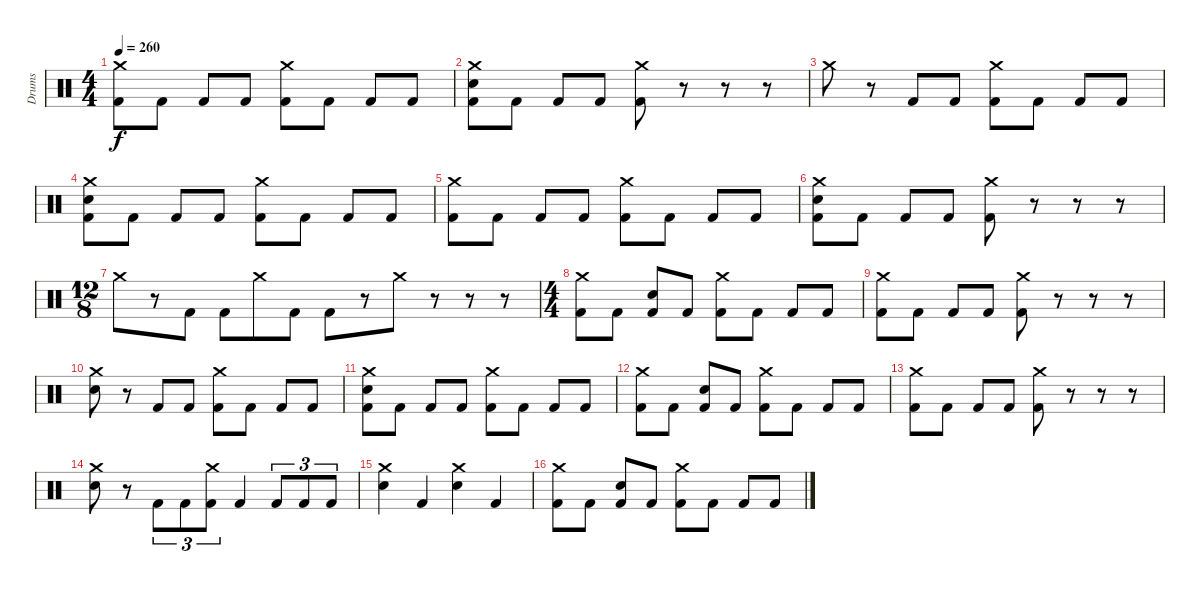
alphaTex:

\track ("Drums" "Drums") {instrument percussion}
\staff {score}
\articulation defaults
\ts (4 4)
\tempo 260
\clef neutral
\ks c
("Crash medium (hit)" "Kick (hit) 2").8{dy f} "Kick (hit) 2".8 "Kick (hit) 2".8 "Kick (hit) 2".8 ("Crash medium (hit)" "Kick (hit) 2").8 "Kick (hit) 2".8 "Kick (hit) 2".8 "Kick (hit) 2".8 |
("Crash medium (hit)" "Snare (hit) 2" "Kick (hit) 2").8 "Kick (hit) 2".8 "Kick (hit) 2".8 "Kick (hit) 2".8 ("Crash medium (hit)" "Kick (hit) 2").8 r.8 r.8 r.8 |
"Crash medium (hit)".8 r.8 "Kick (hit) 2".8 "Kick (hit) 2".8 ("Crash medium (hit)" "Kick (hit) 2").8 "Kick (hit) 2".8 "Kick (hit) 2".8 "Kick (hit) 2".8 |
("Crash medium (hit)" "Snare (hit) 2" "Kick (hit) 2").8 "Kick (hit) 2".8 "Kick (hit) 2".8 "Kick (hit) 2".8 ("Crash medium (hit)" "Kick (hit) 2").8 "Kick (hit) 2".8 "Kick (hit) 2".8 "Kick (hit) 2".8 |
("Crash medium (hit)" "Kick (hit) 2").8 "Kick (hit) 2".8 "Kick (hit) 2".8 "Kick (hit) 2".8 ("Crash medium (hit)" "Kick (hit) 2").8 "Kick (hit) 2".8 "Kick (hit) 2".8 "Kick (hit) 2".8 |
("Crash medium (hit)" "Snare (hit) 2" "Kick (hit) 2").8 "Kick (hit) 2".8 "Kick (hit) 2".8 "Kick (hit) 2".8 ("Crash medium (hit)" "Kick (hit) 2").8 r.8 r.8 r.8 |
\ts (12 8)
"Crash medium (hit)".8 r.8 "Kick (hit) 2".8 "Kick (hit) 2".8 "Crash medium (hit)".8 "Kick (hit) 2".8 "Kick (hit) 2".8 r.8 "Crash medium (hit)".8 r.8 r.8 r.8 |
\ts (4 4)
("Crash medium (hit)" "Kick (hit) 2").8 "Kick (hit) 2".8 ("Snare (hit) 2" "Kick (hit) 2").8 "Kick (hit) 2".8 ("Crash medium (hit)" "Kick (hit) 2").8 "Kick (hit) 2".8 "Kick (hit) 2".8 "Kick (hit) 2".8 |
("Crash medium (hit)" "Kick (hit) 2").8 "Kick (hit) 2".8 "Kick (hit) 2".8 "Kick (hit) 2".8 ("Crash medium (hit)" "Kick (hit) 2").8 r.8 r.8 r.8 |
("Crash medium (hit)" "Snare (hit) 2").8 r.8 "Kick (hit) 2".8 "Kick (hit) 2".8 ("Crash medium (hit)" "Kick (hit) 2").8 "Kick (hit) 2".8 "Kick (hit) 2".8 "Kick (hit) 2".8 |
("Crash medium (hit)" "Snare (hit) 2" "Kick (hit) 2").8 "Kick (hit) 2".8 "Kick (hit) 2".8 "Kick (hit) 2".8 ("Crash medium (hit)" "Kick (hit) 2").8 "Kick (hit) 2".8 "Kick (hit) 2".8 "Kick (hit) 2".8 |
("Crash medium (hit)" "Kick (hit) 2").8 "Kick (hit) 2".8 ("Snare (hit) 2" "Kick (hit) 2").8 "Kick (hit) 2".8 ("Crash medium (hit)" "Kick (hit) 2").8 "Kick (hit) 2".8 "Kick (hit) 2".8 "Kick (hit) 2".8 |
("Crash medium (hit)" "Kick (hit) 2").8 "Kick (hit) 2".8 "Kick (hit) 2".8 "Kick (hit) 2".8 ("Crash medium (hit)" "Kick (hit) 2").8 r.8 r.8 r.8 |
("Crash medium (hit)" "Snare (hit) 2").8 r.8 "Kick (hit) 2".8{tu (3 2)} "Kick (hit) 2".8{tu (3 2)} ("Crash medium (hit)" "Kick (hit) 2").8{tu (3 2)} "Kick (hit) 2".4 "Kick (hit) 2".8{tu (3 2)} "Kick (hit) 2".8{tu (3 2)} "Kick (hit) 2".8{tu (3 2)} |
("Crash medium (hit)" "Snare (hit) 2").4 "Kick (hit) 2".4 ("Crash medium (hit)" "Snare (hit) 2").4 "Kick (hit) 2".4 |
("Crash medium (hit)" "Kick (hit) 2").8 "Kick (hit) 2".8 ("Snare (hit) 2" "Kick (hit) 2").8 "Kick (hit) 2".8 ("Crash medium (hit)" "Kick (hit) 2").8 "Kick (hit) 2".8 "Kick (hit) 2".8 "Kick (hit) 2".8
